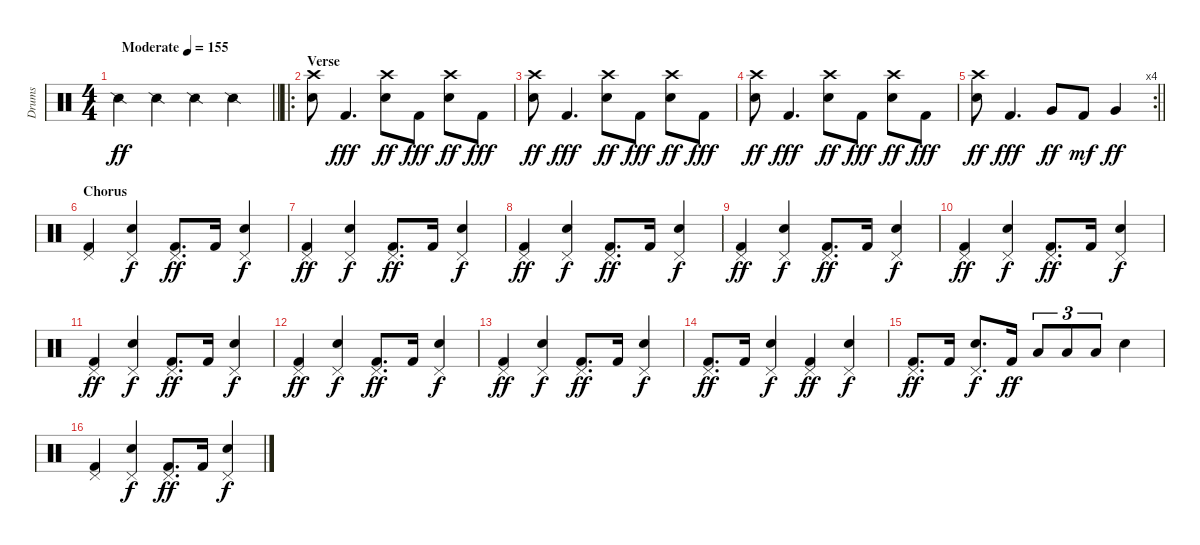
\track ("Drums" "Drums") {instrument percussion}
\staff {score}
\articulation defaults
\ts (4 4)
\tempo (155 "Moderate")
\clef neutral
\barLineRight lightlight
\ks c "Snare (side stick) 2".4{dy ff} "Snare (side stick) 2".4 "Snare (side stick) 2".4 "Snare (side stick) 2".4
|
\ro
\section ("" "Verse")
("Crash high (hit)" "Electric Snare (hit)").8 "Kick (hit) 2".4{d dy fff} ("Crash high (hit)" "Electric Snare (hit)").8{dy ff} "Kick (hit) 2".8{dy fff} ("Crash high (hit)" "Electric Snare (hit)").8{dy ff} "Kick (hit) 2".8{dy fff} |
("Crash high (hit)" "Electric Snare (hit)").8{dy ff} "Kick (hit) 2".4{d dy fff} ("Crash high (hit)" "Electric Snare (hit)").8{dy ff} "Kick (hit) 2".8{dy fff} ("Crash high (hit)" "Electric Snare (hit)").8{dy ff} "Kick (hit) 2".8{dy fff} |
("Crash high (hit)" "Electric Snare (hit)").8{dy ff} "Kick (hit) 2".4{d dy fff} ("Crash high (hit)" "Electric Snare (hit)").8{dy ff} "Kick (hit) 2".8{dy fff} ("Crash high (hit)" "Electric Snare (hit)").8{dy ff} "Kick (hit) 2".8{dy fff} |
\rc 4
\barLineRight lightlight
("Crash high (hit)" "Electric Snare (hit)").8{dy ff} "Kick (hit) 2".4{d dy fff} "Very Low Tom (hit)".8{dy ff} "Kick (hit) 2".8{dy mf} "Very Low Tom (hit)".4{dy ff} |
\section ("" "Chorus")
("Pedal Hi-Hat (hit)" "Kick (hit) 2").4 ("Pedal Hi-Hat (hit)" "Electric Snare (hit)").4{dy f} ("Pedal Hi-Hat (hit)" "Kick (hit) 2").8{d dy ff} "Kick (hit) 2".16 ("Pedal Hi-Hat (hit)" "Electric Snare (hit)").4{dy f} |
("Pedal Hi-Hat (hit)" "Kick (hit) 2").4{dy ff} ("Pedal Hi-Hat (hit)" "Electric Snare (hit)").4{dy f} ("Pedal Hi-Hat (hit)" "Kick (hit) 2").8{d dy ff} "Kick (hit) 2".16 ("Pedal Hi-Hat (hit)" "Electric Snare (hit)").4{dy f} |
("Pedal Hi-Hat (hit)" "Kick (hit) 2").4{dy ff} ("Pedal Hi-Hat (hit)" "Electric Snare (hit)").4{dy f} ("Pedal Hi-Hat (hit)" "Kick (hit) 2").8{d dy ff} "Kick (hit) 2".16 ("Pedal Hi-Hat (hit)" "Electric Snare (hit)").4{dy f} |
("Pedal Hi-Hat (hit)" "Kick (hit) 2").4{dy ff} ("Pedal Hi-Hat (hit)" "Electric Snare (hit)").4{dy f} ("Pedal Hi-Hat (hit)" "Kick (hit) 2").8{d dy ff} "Kick (hit) 2".16 ("Pedal Hi-Hat (hit)" "Electric Snare (hit)").4{dy f} |
("Pedal Hi-Hat (hit)" "Kick (hit) 2").4{dy ff} ("Pedal Hi-Hat (hit)" "Electric Snare (hit)").4{dy f} ("Pedal Hi-Hat (hit)" "Kick (hit) 2").8{d dy ff} "Kick (hit) 2".16 ("Pedal Hi-Hat (hit)" "Electric Snare (hit)").4{dy f} |
("Pedal Hi-Hat (hit)" "Kick (hit) 2").4{dy ff} ("Pedal Hi-Hat (hit)" "Electric Snare (hit)").4{dy f} ("Pedal Hi-Hat (hit)" "Kick (hit) 2").8{d dy ff} "Kick (hit) 2".16 ("Pedal Hi-Hat (hit)" "Electric Snare (hit)").4{dy f} |
("Pedal Hi-Hat (hit)" "Kick (hit) 2").4{dy ff} ("Pedal Hi-Hat (hit)" "Electric Snare (hit)").4{dy f} ("Pedal Hi-Hat (hit)" "Kick (hit) 2").8{d dy ff} "Kick (hit) 2".16 ("Pedal Hi-Hat (hit)" "Electric Snare (hit)").4{dy f} |
("Pedal Hi-Hat (hit)" "Kick (hit) 2").4{dy ff} ("Pedal Hi-Hat (hit)" "Electric Snare (hit)").4{dy f} ("Pedal Hi-Hat (hit)" "Kick (hit) 2").8{d dy ff} "Kick (hit) 2".16 ("Pedal Hi-Hat (hit)" "Electric Snare (hit)").4{dy f} |
("Pedal Hi-Hat (hit)" "Kick (hit) 2").8{d dy ff} "Kick (hit) 2".16 ("Pedal Hi-Hat (hit)" "Electric Snare (hit)").4{dy f} ("Pedal Hi-Hat (hit)" "Kick (hit) 2").4{dy ff} ("Pedal Hi-Hat (hit)" "Electric Snare (hit)").4{dy f} |
("Pedal Hi-Hat (hit)" "Kick (hit) 2").8{d dy ff} "Kick (hit) 2".16 ("Pedal Hi-Hat (hit)" "Electric Snare (hit)").8{d dy f} "Kick (hit) 2".16{dy ff} "Low Floor Tom (hit)".8{tu (3 2)} "Low Floor Tom (hit)".8{tu (3 2)} "Low Floor Tom (hit)".8{tu (3 2)} "Electric Snare (hit)".4 |
("Pedal Hi-Hat (hit)" "Kick (hit) 2").4 ("Pedal Hi-Hat (hit)" "Electric Snare (hit)").4{dy f} ("Pedal Hi-Hat (hit)" "Kick (hit) 2").8{d dy ff} "Kick (hit) 2".16 ("Pedal Hi-Hat (hit)" "Electric Snare (hit)").4{dy f}
